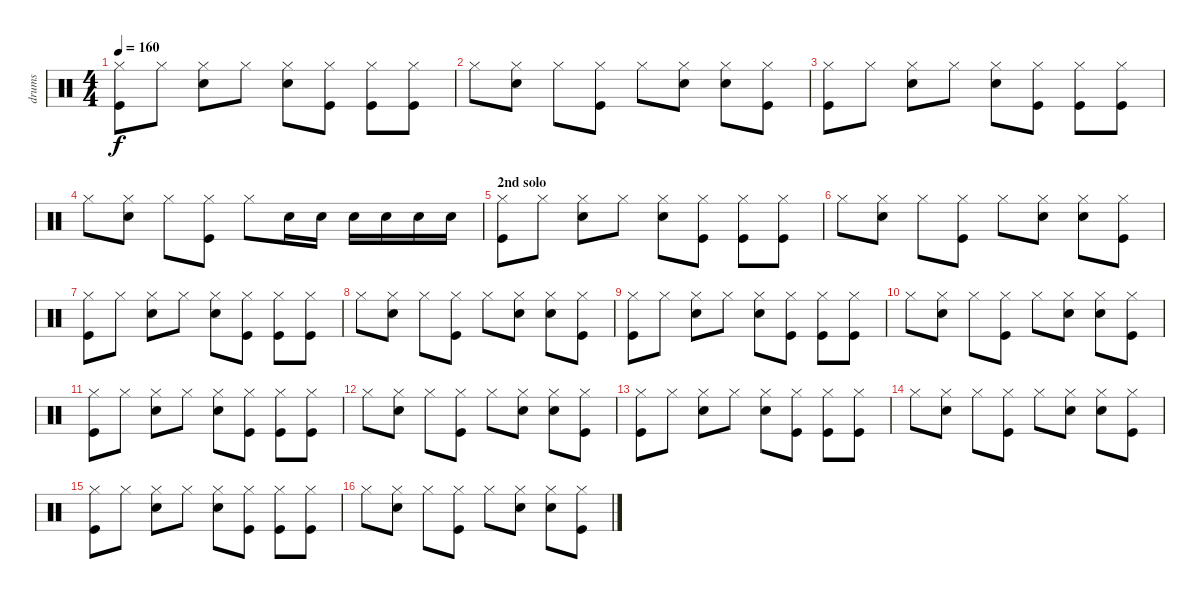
\track ("drums" "drums") {instrument percussion}
\staff {score}
\articulation defaults
\ts (4 4)
\tempo 160
\clef neutral
\ks c
("Hi-Hat (closed)" "Kick (hit)").8{dy f} "Hi-Hat (closed)".8 ("Hi-Hat (closed)" "Electric Snare (hit)").8 "Hi-Hat (closed)".8 ("Hi-Hat (closed)" "Electric Snare (hit)").8 ("Hi-Hat (closed)" "Kick (hit)").8 ("Hi-Hat (closed)" "Kick (hit)").8 ("Hi-Hat (closed)" "Kick (hit)").8 |
"Hi-Hat (closed)".8 ("Hi-Hat (closed)" "Electric Snare (hit)").8 "Hi-Hat (closed)".8 ("Hi-Hat (closed)" "Kick (hit)").8 "Hi-Hat (closed)".8 ("Hi-Hat (closed)" "Electric Snare (hit)").8 ("Hi-Hat (closed)" "Electric Snare (hit)").8 ("Hi-Hat (closed)" "Kick (hit)").8 |
("Hi-Hat (closed)" "Kick (hit)").8 "Hi-Hat (closed)".8 ("Hi-Hat (closed)" "Electric Snare (hit)").8 "Hi-Hat (closed)".8 ("Hi-Hat (closed)" "Electric Snare (hit)").8 ("Hi-Hat (closed)" "Kick (hit)").8 ("Hi-Hat (closed)" "Kick (hit)").8 ("Hi-Hat (closed)" "Kick (hit)").8 |
"Hi-Hat (closed)".8 ("Hi-Hat (closed)" "Electric Snare (hit)").8 "Hi-Hat (closed)".8 ("Hi-Hat (closed)" "Kick (hit)").8 "Hi-Hat (closed)".8 "Electric Snare (hit)".16 "Electric Snare (hit)".16 "Electric Snare (hit)".16 "Electric Snare (hit)".16 "Electric Snare (hit)".16 "Electric Snare (hit)".16 |
\section ("" "2nd solo")
("Hi-Hat (closed)" "Kick (hit)").8 "Hi-Hat (closed)".8 ("Hi-Hat (closed)" "Electric Snare (hit)").8 "Hi-Hat (closed)".8 ("Hi-Hat (closed)" "Electric Snare (hit)").8 ("Hi-Hat (closed)" "Kick (hit)").8 ("Hi-Hat (closed)" "Kick (hit)").8 ("Hi-Hat (closed)" "Kick (hit)").8 |
"Hi-Hat (closed)".8 ("Hi-Hat (closed)" "Electric Snare (hit)").8 "Hi-Hat (closed)".8 ("Hi-Hat (closed)" "Kick (hit)").8 "Hi-Hat (closed)".8 ("Hi-Hat (closed)" "Electric Snare (hit)").8 ("Hi-Hat (closed)" "Electric Snare (hit)").8 ("Hi-Hat (closed)" "Kick (hit)").8 |
("Hi-Hat (closed)" "Kick (hit)").8 "Hi-Hat (closed)".8 ("Hi-Hat (closed)" "Electric Snare (hit)").8 "Hi-Hat (closed)".8 ("Hi-Hat (closed)" "Electric Snare (hit)").8 ("Hi-Hat (closed)" "Kick (hit)").8 ("Hi-Hat (closed)" "Kick (hit)").8 ("Hi-Hat (closed)" "Kick (hit)").8 |
"Hi-Hat (closed)".8 ("Hi-Hat (closed)" "Electric Snare (hit)").8 "Hi-Hat (closed)".8 ("Hi-Hat (closed)" "Kick (hit)").8 "Hi-Hat (closed)".8 ("Hi-Hat (closed)" "Electric Snare (hit)").8 ("Hi-Hat (closed)" "Electric Snare (hit)").8 ("Hi-Hat (closed)" "Kick (hit)").8 |
("Hi-Hat (closed)" "Kick (hit)").8 "Hi-Hat (closed)".8 ("Hi-Hat (closed)" "Electric Snare (hit)").8 "Hi-Hat (closed)".8 ("Hi-Hat (closed)" "Electric Snare (hit)").8 ("Hi-Hat (closed)" "Kick (hit)").8 ("Hi-Hat (closed)" "Kick (hit)").8 ("Hi-Hat (closed)" "Kick (hit)").8 |
"Hi-Hat (closed)".8 ("Hi-Hat (closed)" "Electric Snare (hit)").8 "Hi-Hat (closed)".8 ("Hi-Hat (closed)" "Kick (hit)").8 "Hi-Hat (closed)".8 ("Hi-Hat (closed)" "Electric Snare (hit)").8 ("Hi-Hat (closed)" "Electric Snare (hit)").8 ("Hi-Hat (closed)" "Kick (hit)").8 |
("Hi-Hat (closed)" "Kick (hit)").8 "Hi-Hat (closed)".8 ("Hi-Hat (closed)" "Electric Snare (hit)").8 "Hi-Hat (closed)".8 ("Hi-Hat (closed)" "Electric Snare (hit)").8 ("Hi-Hat (closed)" "Kick (hit)").8 ("Hi-Hat (closed)" "Kick (hit)").8 ("Hi-Hat (closed)" "Kick (hit)").8 |
"Hi-Hat (closed)".8 ("Hi-Hat (closed)" "Electric Snare (hit)").8 "Hi-Hat (closed)".8 ("Hi-Hat (closed)" "Kick (hit)").8 "Hi-Hat (closed)".8 ("Hi-Hat (closed)" "Electric Snare (hit)").8 ("Hi-Hat (closed)" "Electric Snare (hit)").8 ("Hi-Hat (closed)" "Kick (hit)").8 |
("Hi-Hat (closed)" "Kick (hit)").8 "Hi-Hat (closed)".8 ("Hi-Hat (closed)" "Electric Snare (hit)").8 "Hi-Hat (closed)".8 ("Hi-Hat (closed)" "Electric Snare (hit)").8 ("Hi-Hat (closed)" "Kick (hit)").8 ("Hi-Hat (closed)" "Kick (hit)").8 ("Hi-Hat (closed)" "Kick (hit)").8 |
"Hi-Hat (closed)".8 ("Hi-Hat (closed)" "Electric Snare (hit)").8 "Hi-Hat (closed)".8 ("Hi-Hat (closed)" "Kick (hit)").8 "Hi-Hat (closed)".8 ("Hi-Hat (closed)" "Electric Snare (hit)").8 ("Hi-Hat (closed)" "Electric Snare (hit)").8 ("Hi-Hat (closed)" "Kick (hit)").8 |
("Hi-Hat (closed)" "Kick (hit)").8 "Hi-Hat (closed)".8 ("Hi-Hat (closed)" "Electric Snare (hit)").8 "Hi-Hat (closed)".8 ("Hi-Hat (closed)" "Electric Snare (hit)").8 ("Hi-Hat (closed)" "Kick (hit)").8 ("Hi-Hat (closed)" "Kick (hit)").8 ("Hi-Hat (closed)" "Kick (hit)").8 |
"Hi-Hat (closed)".8 ("Hi-Hat (closed)" "Electric Snare (hit)").8 "Hi-Hat (closed)".8 ("Hi-Hat (closed)" "Kick (hit)").8 "Hi-Hat (closed)".8 ("Hi-Hat (closed)" "Electric Snare (hit)").8 ("Hi-Hat (closed)" "Electric Snare (hit)").8 ("Hi-Hat (closed)" "Kick (hit)").8
